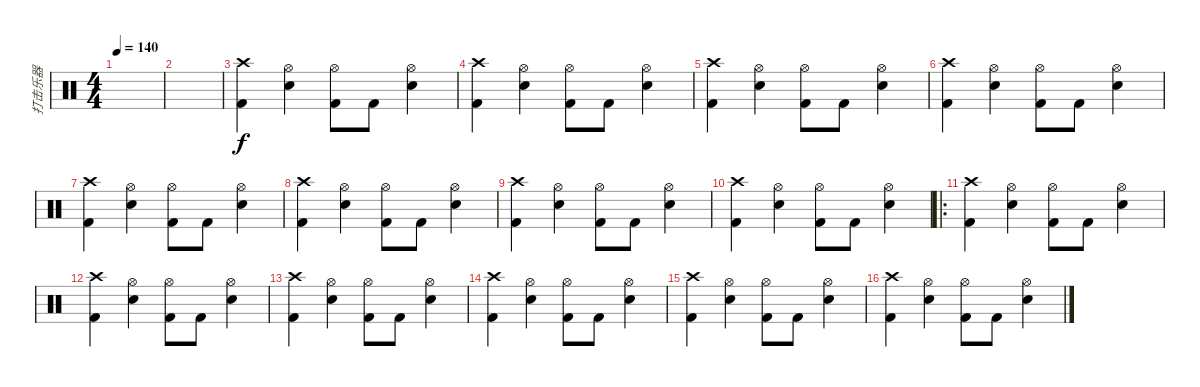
\track ("打击乐器" "打击乐器") {instrument percussion}
\staff {score}
\articulation defaults
\ts (4 4)
\tempo 140
\clef neutral
\ks c
|
|
("Crash high (hit)" "Kick (hit) 2").4 ("Hi-Hat (open)" "Snare (hit) 2").4 ("Hi-Hat (open)" "Kick (hit) 2").8 "Kick (hit) 2".8 ("Hi-Hat (open)" "Snare (hit) 2").4 |
("Crash high (hit)" "Kick (hit) 2").4 ("Hi-Hat (open)" "Snare (hit) 2").4 ("Hi-Hat (open)" "Kick (hit) 2").8 "Kick (hit) 2".8 ("Hi-Hat (open)" "Snare (hit) 2").4 |
("Crash high (hit)" "Kick (hit) 2").4 ("Hi-Hat (open)" "Snare (hit) 2").4 ("Hi-Hat (open)" "Kick (hit) 2").8 "Kick (hit) 2".8 ("Hi-Hat (open)" "Snare (hit) 2").4 |
("Crash high (hit)" "Kick (hit) 2").4 ("Hi-Hat (open)" "Snare (hit) 2").4 ("Hi-Hat (open)" "Kick (hit) 2").8 "Kick (hit) 2".8 ("Hi-Hat (open)" "Snare (hit) 2").4 |
("Crash high (hit)" "Kick (hit) 2").4 ("Hi-Hat (open)" "Snare (hit) 2").4 ("Hi-Hat (open)" "Kick (hit) 2").8 "Kick (hit) 2".8 ("Hi-Hat (open)" "Snare (hit) 2").4 |
("Crash high (hit)" "Kick (hit) 2").4 ("Hi-Hat (open)" "Snare (hit) 2").4 ("Hi-Hat (open)" "Kick (hit) 2").8 "Kick (hit) 2".8 ("Hi-Hat (open)" "Snare (hit) 2").4 |
("Crash high (hit)" "Kick (hit) 2").4 ("Hi-Hat (open)" "Snare (hit) 2").4 ("Hi-Hat (open)" "Kick (hit) 2").8 "Kick (hit) 2".8 ("Hi-Hat (open)" "Snare (hit) 2").4 |
("Crash high (hit)" "Kick (hit) 2").4 ("Hi-Hat (open)" "Snare (hit) 2").4 ("Hi-Hat (open)" "Kick (hit) 2").8 "Kick (hit) 2".8 ("Hi-Hat (open)" "Snare (hit) 2").4 |
\ro
("Crash high (hit)" "Kick (hit) 2").4 ("Hi-Hat (open)" "Snare (hit) 2").4 ("Hi-Hat (open)" "Kick (hit) 2").8 "Kick (hit) 2".8 ("Hi-Hat (open)" "Snare (hit) 2").4 |
("Crash high (hit)" "Kick (hit) 2").4 ("Hi-Hat (open)" "Snare (hit) 2").4 ("Hi-Hat (open)" "Kick (hit) 2").8 "Kick (hit) 2".8 ("Hi-Hat (open)" "Snare (hit) 2").4 |
("Crash high (hit)" "Kick (hit) 2").4 ("Hi-Hat (open)" "Snare (hit) 2").4 ("Hi-Hat (open)" "Kick (hit) 2").8 "Kick (hit) 2".8 ("Hi-Hat (open)" "Snare (hit) 2").4 |
("Crash high (hit)" "Kick (hit) 2").4 ("Hi-Hat (open)" "Snare (hit) 2").4 ("Hi-Hat (open)" "Kick (hit) 2").8 "Kick (hit) 2".8 ("Hi-Hat (open)" "Snare (hit) 2").4 |
("Crash high (hit)" "Kick (hit) 2").4 ("Hi-Hat (open)" "Snare (hit) 2").4 ("Hi-Hat (open)" "Kick (hit) 2").8 "Kick (hit) 2".8 ("Hi-Hat (open)" "Snare (hit) 2").4 |
("Crash high (hit)" "Kick (hit) 2").4 ("Hi-Hat (open)" "Snare (hit) 2").4 ("Hi-Hat (open)" "Kick (hit) 2").8 "Kick (hit) 2".8 ("Hi-Hat (open)" "Snare (hit) 2").4
